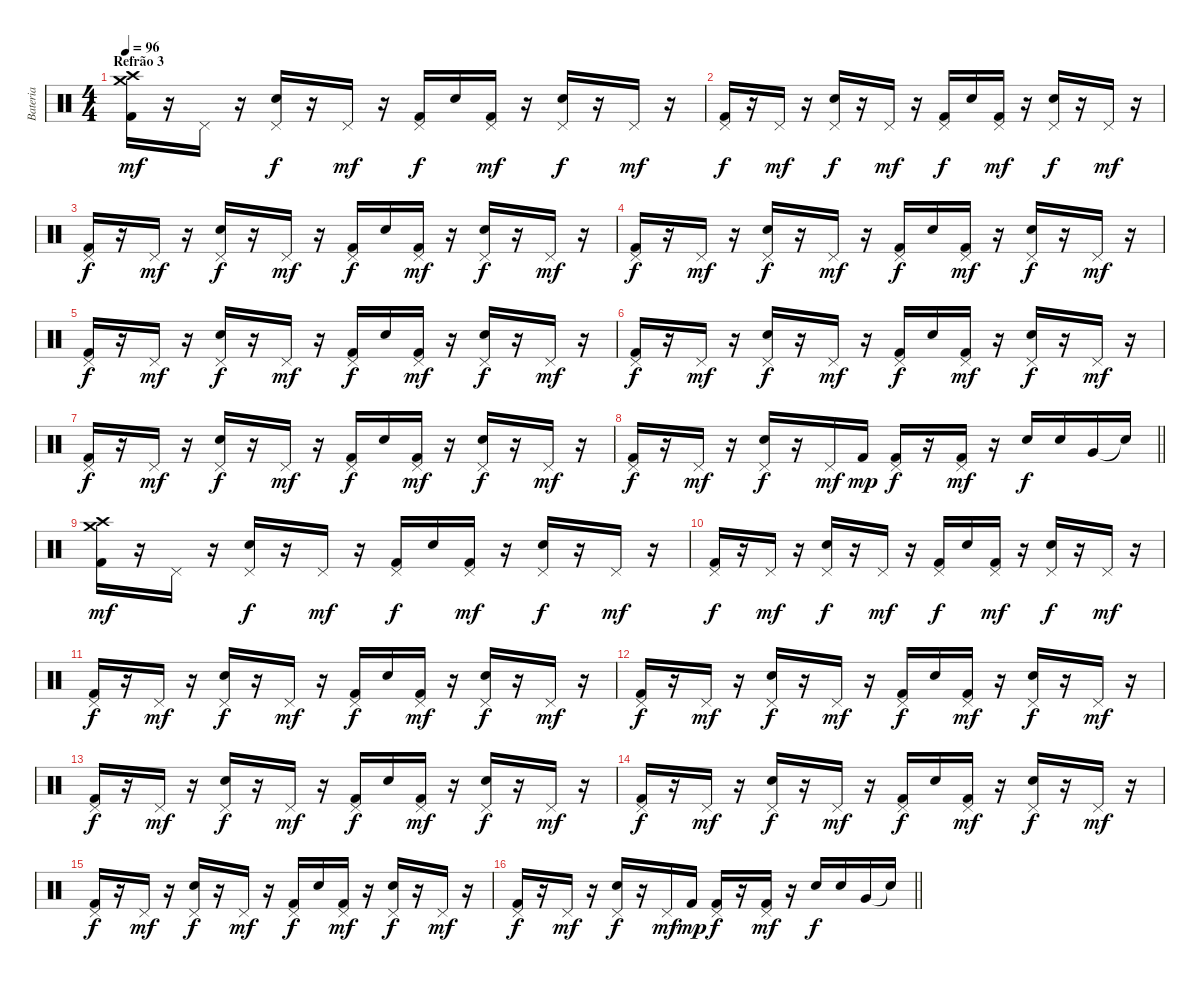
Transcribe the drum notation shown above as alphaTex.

\track ("Bateria" "Bateria") {instrument percussion}
\staff {score}
\articulation defaults
\ts (4 4)
\section ("" "Refrão 3")
\tempo 96
\clef neutral
\ks c
("Crash medium (hit)" "Crash high (hit)" "Kick (hit) 2").16{dy mf} r.16 "Pedal Hi-Hat (hit)".16 r.16 ("Pedal Hi-Hat (hit)" "Electric Snare (hit)").16{dy f} r.16 "Pedal Hi-Hat (hit)".16{dy mf} r.16 ("Pedal Hi-Hat (hit)" "Kick (hit) 2").16{dy f} "Electric Snare (hit)".16 ("Pedal Hi-Hat (hit)" "Kick (hit) 2").16{dy mf} r.16 ("Pedal Hi-Hat (hit)" "Electric Snare (hit)").16{dy f} r.16 "Pedal Hi-Hat (hit)".16{dy mf} r.16 |
("Pedal Hi-Hat (hit)" "Kick (hit) 2").16{dy f} r.16 "Pedal Hi-Hat (hit)".16{dy mf} r.16 ("Pedal Hi-Hat (hit)" "Electric Snare (hit)").16{dy f} r.16 "Pedal Hi-Hat (hit)".16{dy mf} r.16 ("Pedal Hi-Hat (hit)" "Kick (hit) 2").16{dy f} "Electric Snare (hit)".16 ("Pedal Hi-Hat (hit)" "Kick (hit) 2").16{dy mf} r.16 ("Pedal Hi-Hat (hit)" "Electric Snare (hit)").16{dy f} r.16 "Pedal Hi-Hat (hit)".16{dy mf} r.16 |
("Pedal Hi-Hat (hit)" "Kick (hit) 2").16{dy f} r.16 "Pedal Hi-Hat (hit)".16{dy mf} r.16 ("Pedal Hi-Hat (hit)" "Electric Snare (hit)").16{dy f} r.16 "Pedal Hi-Hat (hit)".16{dy mf} r.16 ("Pedal Hi-Hat (hit)" "Kick (hit) 2").16{dy f} "Electric Snare (hit)".16 ("Pedal Hi-Hat (hit)" "Kick (hit) 2").16{dy mf} r.16 ("Pedal Hi-Hat (hit)" "Electric Snare (hit)").16{dy f} r.16 "Pedal Hi-Hat (hit)".16{dy mf} r.16 |
("Pedal Hi-Hat (hit)" "Kick (hit) 2").16{dy f} r.16 "Pedal Hi-Hat (hit)".16{dy mf} r.16 ("Pedal Hi-Hat (hit)" "Electric Snare (hit)").16{dy f} r.16 "Pedal Hi-Hat (hit)".16{dy mf} r.16 ("Pedal Hi-Hat (hit)" "Kick (hit) 2").16{dy f} "Electric Snare (hit)".16 ("Pedal Hi-Hat (hit)" "Kick (hit) 2").16{dy mf} r.16 ("Pedal Hi-Hat (hit)" "Electric Snare (hit)").16{dy f} r.16 "Pedal Hi-Hat (hit)".16{dy mf} r.16 |
("Pedal Hi-Hat (hit)" "Kick (hit) 2").16{dy f} r.16 "Pedal Hi-Hat (hit)".16{dy mf} r.16 ("Pedal Hi-Hat (hit)" "Electric Snare (hit)").16{dy f} r.16 "Pedal Hi-Hat (hit)".16{dy mf} r.16 ("Pedal Hi-Hat (hit)" "Kick (hit) 2").16{dy f} "Electric Snare (hit)".16 ("Pedal Hi-Hat (hit)" "Kick (hit) 2").16{dy mf} r.16 ("Pedal Hi-Hat (hit)" "Electric Snare (hit)").16{dy f} r.16 "Pedal Hi-Hat (hit)".16{dy mf} r.16 |
("Pedal Hi-Hat (hit)" "Kick (hit) 2").16{dy f} r.16 "Pedal Hi-Hat (hit)".16{dy mf} r.16 ("Pedal Hi-Hat (hit)" "Electric Snare (hit)").16{dy f} r.16 "Pedal Hi-Hat (hit)".16{dy mf} r.16 ("Pedal Hi-Hat (hit)" "Kick (hit) 2").16{dy f} "Electric Snare (hit)".16 ("Pedal Hi-Hat (hit)" "Kick (hit) 2").16{dy mf} r.16 ("Pedal Hi-Hat (hit)" "Electric Snare (hit)").16{dy f} r.16 "Pedal Hi-Hat (hit)".16{dy mf} r.16 |
("Pedal Hi-Hat (hit)" "Kick (hit) 2").16{dy f} r.16 "Pedal Hi-Hat (hit)".16{dy mf} r.16 ("Pedal Hi-Hat (hit)" "Electric Snare (hit)").16{dy f} r.16 "Pedal Hi-Hat (hit)".16{dy mf} r.16 ("Pedal Hi-Hat (hit)" "Kick (hit) 2").16{dy f} "Electric Snare (hit)".16 ("Pedal Hi-Hat (hit)" "Kick (hit) 2").16{dy mf} r.16 ("Pedal Hi-Hat (hit)" "Electric Snare (hit)").16{dy f} r.16 "Pedal Hi-Hat (hit)".16{dy mf} r.16 |
\barLineRight lightlight
("Pedal Hi-Hat (hit)" "Kick (hit) 2").16{dy f} r.16 "Pedal Hi-Hat (hit)".16{dy mf} r.16 ("Pedal Hi-Hat (hit)" "Electric Snare (hit)").16{dy f} r.16 "Pedal Hi-Hat (hit)".16{dy mf} "Kick (hit) 2".16{dy mp} ("Pedal Hi-Hat (hit)" "Kick (hit) 2").16{dy f} r.16 ("Pedal Hi-Hat (hit)" "Kick (hit) 2").16{dy mf} r.16 "Electric Snare (hit)".16{dy f} "Electric Snare (hit)".16 "Very Low Tom (hit)".16 "Snare (hit)"{t}.16 |
("Crash medium (hit)" "Crash high (hit)" "Kick (hit) 2").16{dy mf} r.16 "Pedal Hi-Hat (hit)".16 r.16 ("Pedal Hi-Hat (hit)" "Electric Snare (hit)").16{dy f} r.16 "Pedal Hi-Hat (hit)".16{dy mf} r.16 ("Pedal Hi-Hat (hit)" "Kick (hit) 2").16{dy f} "Electric Snare (hit)".16 ("Pedal Hi-Hat (hit)" "Kick (hit) 2").16{dy mf} r.16 ("Pedal Hi-Hat (hit)" "Electric Snare (hit)").16{dy f} r.16 "Pedal Hi-Hat (hit)".16{dy mf} r.16 |
("Pedal Hi-Hat (hit)" "Kick (hit) 2").16{dy f} r.16 "Pedal Hi-Hat (hit)".16{dy mf} r.16 ("Pedal Hi-Hat (hit)" "Electric Snare (hit)").16{dy f} r.16 "Pedal Hi-Hat (hit)".16{dy mf} r.16 ("Pedal Hi-Hat (hit)" "Kick (hit) 2").16{dy f} "Electric Snare (hit)".16 ("Pedal Hi-Hat (hit)" "Kick (hit) 2").16{dy mf} r.16 ("Pedal Hi-Hat (hit)" "Electric Snare (hit)").16{dy f} r.16 "Pedal Hi-Hat (hit)".16{dy mf} r.16 |
("Pedal Hi-Hat (hit)" "Kick (hit) 2").16{dy f} r.16 "Pedal Hi-Hat (hit)".16{dy mf} r.16 ("Pedal Hi-Hat (hit)" "Electric Snare (hit)").16{dy f} r.16 "Pedal Hi-Hat (hit)".16{dy mf} r.16 ("Pedal Hi-Hat (hit)" "Kick (hit) 2").16{dy f} "Electric Snare (hit)".16 ("Pedal Hi-Hat (hit)" "Kick (hit) 2").16{dy mf} r.16 ("Pedal Hi-Hat (hit)" "Electric Snare (hit)").16{dy f} r.16 "Pedal Hi-Hat (hit)".16{dy mf} r.16 |
("Pedal Hi-Hat (hit)" "Kick (hit) 2").16{dy f} r.16 "Pedal Hi-Hat (hit)".16{dy mf} r.16 ("Pedal Hi-Hat (hit)" "Electric Snare (hit)").16{dy f} r.16 "Pedal Hi-Hat (hit)".16{dy mf} r.16 ("Pedal Hi-Hat (hit)" "Kick (hit) 2").16{dy f} "Electric Snare (hit)".16 ("Pedal Hi-Hat (hit)" "Kick (hit) 2").16{dy mf} r.16 ("Pedal Hi-Hat (hit)" "Electric Snare (hit)").16{dy f} r.16 "Pedal Hi-Hat (hit)".16{dy mf} r.16 |
("Pedal Hi-Hat (hit)" "Kick (hit) 2").16{dy f} r.16 "Pedal Hi-Hat (hit)".16{dy mf} r.16 ("Pedal Hi-Hat (hit)" "Electric Snare (hit)").16{dy f} r.16 "Pedal Hi-Hat (hit)".16{dy mf} r.16 ("Pedal Hi-Hat (hit)" "Kick (hit) 2").16{dy f} "Electric Snare (hit)".16 ("Pedal Hi-Hat (hit)" "Kick (hit) 2").16{dy mf} r.16 ("Pedal Hi-Hat (hit)" "Electric Snare (hit)").16{dy f} r.16 "Pedal Hi-Hat (hit)".16{dy mf} r.16 |
("Pedal Hi-Hat (hit)" "Kick (hit) 2").16{dy f} r.16 "Pedal Hi-Hat (hit)".16{dy mf} r.16 ("Pedal Hi-Hat (hit)" "Electric Snare (hit)").16{dy f} r.16 "Pedal Hi-Hat (hit)".16{dy mf} r.16 ("Pedal Hi-Hat (hit)" "Kick (hit) 2").16{dy f} "Electric Snare (hit)".16 ("Pedal Hi-Hat (hit)" "Kick (hit) 2").16{dy mf} r.16 ("Pedal Hi-Hat (hit)" "Electric Snare (hit)").16{dy f} r.16 "Pedal Hi-Hat (hit)".16{dy mf} r.16 |
("Pedal Hi-Hat (hit)" "Kick (hit) 2").16{dy f} r.16 "Pedal Hi-Hat (hit)".16{dy mf} r.16 ("Pedal Hi-Hat (hit)" "Electric Snare (hit)").16{dy f} r.16 "Pedal Hi-Hat (hit)".16{dy mf} r.16 ("Pedal Hi-Hat (hit)" "Kick (hit) 2").16{dy f} "Electric Snare (hit)".16 ("Pedal Hi-Hat (hit)" "Kick (hit) 2").16{dy mf} r.16 ("Pedal Hi-Hat (hit)" "Electric Snare (hit)").16{dy f} r.16 "Pedal Hi-Hat (hit)".16{dy mf} r.16 |
\barLineRight lightlight
("Pedal Hi-Hat (hit)" "Kick (hit) 2").16{dy f} r.16 "Pedal Hi-Hat (hit)".16{dy mf} r.16 ("Pedal Hi-Hat (hit)" "Electric Snare (hit)").16{dy f} r.16 "Pedal Hi-Hat (hit)".16{dy mf} "Kick (hit) 2".16{dy mp} ("Pedal Hi-Hat (hit)" "Kick (hit) 2").16{dy f} r.16 ("Pedal Hi-Hat (hit)" "Kick (hit) 2").16{dy mf} r.16 "Electric Snare (hit)".16{dy f} "Electric Snare (hit)".16 "Very Low Tom (hit)".16 "Snare (hit)"{t}.16
